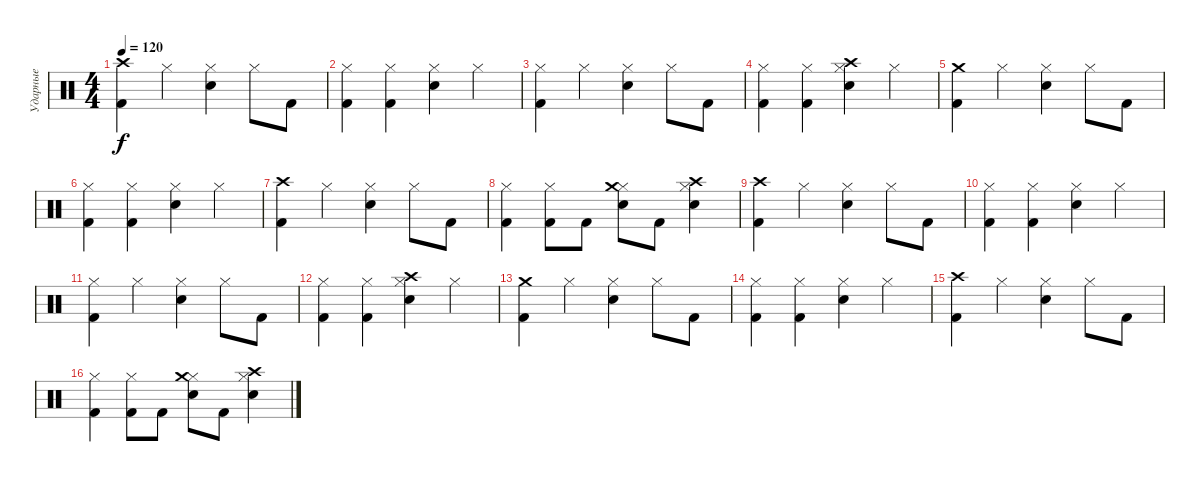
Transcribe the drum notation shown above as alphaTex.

\track ("Ударные" "Ударные") {instrument percussion}
\staff {score}
\articulation defaults
\ts (4 4)
\tempo 120
\clef neutral
\ks c
("Kick (hit) 2" "Crash high (hit)").4{dy f} "Hi-Hat (closed)".4 ("Electric Snare (hit)" "Hi-Hat (closed)").4 "Hi-Hat (closed)".8 "Kick (hit) 2".8 |
("Kick (hit) 2" "Hi-Hat (closed)").4 ("Kick (hit) 2" "Hi-Hat (closed)").4 ("Electric Snare (hit)" "Hi-Hat (closed)").4 "Hi-Hat (closed)".4 |
("Kick (hit) 2" "Hi-Hat (closed)").4 "Hi-Hat (closed)".4 ("Electric Snare (hit)" "Hi-Hat (closed)").4 "Hi-Hat (closed)".8 "Kick (hit) 2".8 |
("Kick (hit) 2" "Hi-Hat (closed)").4 ("Kick (hit) 2" "Hi-Hat (closed)").4 ("Electric Snare (hit)" "Hi-Hat (closed)" "Crash high (hit)").4 "Hi-Hat (closed)".4 |
("Kick (hit) 2" "Crash medium (hit)").4 "Hi-Hat (closed)".4 ("Electric Snare (hit)" "Hi-Hat (closed)").4 "Hi-Hat (closed)".8 "Kick (hit) 2".8 |
("Kick (hit) 2" "Hi-Hat (closed)").4 ("Kick (hit) 2" "Hi-Hat (closed)").4 ("Electric Snare (hit)" "Hi-Hat (closed)").4 "Hi-Hat (closed)".4 |
("Kick (hit) 2" "Crash high (hit)").4 "Hi-Hat (closed)".4 ("Electric Snare (hit)" "Hi-Hat (closed)").4 "Hi-Hat (closed)".8 "Kick (hit) 2".8 |
("Kick (hit) 2" "Hi-Hat (closed)").4 ("Kick (hit) 2" "Hi-Hat (closed)").8 "Kick (hit) 2".8 ("Electric Snare (hit)" "Hi-Hat (closed)" "Crash medium (hit)").8 "Kick (hit) 2".8 ("Electric Snare (hit)" "Hi-Hat (closed)" "Crash high (hit)").4 |
("Kick (hit) 2" "Crash high (hit)").4 "Hi-Hat (closed)".4 ("Electric Snare (hit)" "Hi-Hat (closed)").4 "Hi-Hat (closed)".8 "Kick (hit) 2".8 |
("Kick (hit) 2" "Hi-Hat (closed)").4 ("Kick (hit) 2" "Hi-Hat (closed)").4 ("Electric Snare (hit)" "Hi-Hat (closed)").4 "Hi-Hat (closed)".4 |
("Kick (hit) 2" "Hi-Hat (closed)").4 "Hi-Hat (closed)".4 ("Electric Snare (hit)" "Hi-Hat (closed)").4 "Hi-Hat (closed)".8 "Kick (hit) 2".8 |
("Kick (hit) 2" "Hi-Hat (closed)").4 ("Kick (hit) 2" "Hi-Hat (closed)").4 ("Electric Snare (hit)" "Hi-Hat (closed)" "Crash high (hit)").4 "Hi-Hat (closed)".4 |
("Kick (hit) 2" "Crash medium (hit)").4 "Hi-Hat (closed)".4 ("Electric Snare (hit)" "Hi-Hat (closed)").4 "Hi-Hat (closed)".8 "Kick (hit) 2".8 |
("Kick (hit) 2" "Hi-Hat (closed)").4 ("Kick (hit) 2" "Hi-Hat (closed)").4 ("Electric Snare (hit)" "Hi-Hat (closed)").4 "Hi-Hat (closed)".4 |
("Kick (hit) 2" "Crash high (hit)").4 "Hi-Hat (closed)".4 ("Electric Snare (hit)" "Hi-Hat (closed)").4 "Hi-Hat (closed)".8 "Kick (hit) 2".8 |
("Kick (hit) 2" "Hi-Hat (closed)").4 ("Kick (hit) 2" "Hi-Hat (closed)").8 "Kick (hit) 2".8 ("Electric Snare (hit)" "Hi-Hat (closed)" "Crash medium (hit)").8 "Kick (hit) 2".8 ("Electric Snare (hit)" "Hi-Hat (closed)" "Crash high (hit)").4
